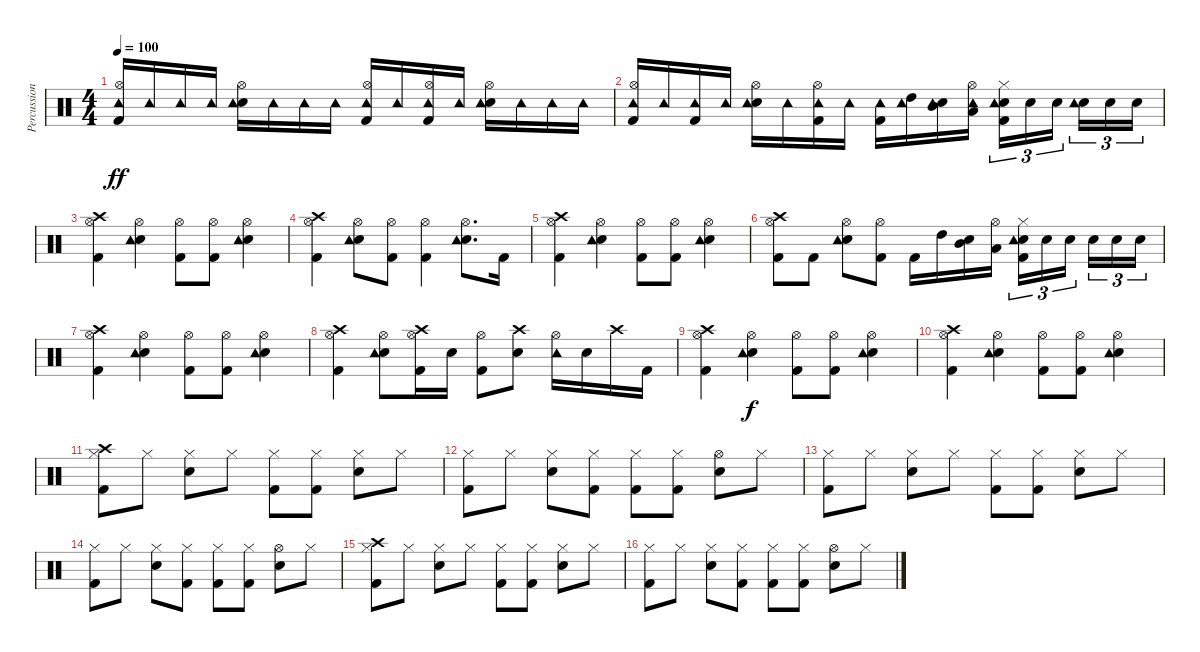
\track ("Percussions" "Percussion") {instrument percussion}
\staff {score}
\articulation defaults
\ts (4 4)
\tempo 100
\clef neutral
\ks c
("Kick (hit) 2" "Hi-Hat (open)" "Tambourine (hit)").16{dy ff} "Tambourine (hit)".16 "Tambourine (hit)".16 "Tambourine (hit)".16 ("Snare (hit) 2" "Hi-Hat (open)" "Tambourine (hit)").16 "Tambourine (hit)".16 "Tambourine (hit)".16 "Tambourine (hit)".16 ("Kick (hit) 2" "Hi-Hat (open)" "Tambourine (hit)").16 "Tambourine (hit)".16 ("Kick (hit) 2" "Hi-Hat (open)" "Tambourine (hit)").16 "Tambourine (hit)".16 ("Snare (hit) 2" "Hi-Hat (open)" "Tambourine (hit)").16 "Tambourine (hit)".16 "Tambourine (hit)".16 "Tambourine (hit)".16 |
("Kick (hit) 2" "Hi-Hat (open)" "Tambourine (hit)").16 "Tambourine (hit)".16 ("Kick (hit) 2" "Tambourine (hit)").16 "Tambourine (hit)".16 ("Snare (hit) 2" "Hi-Hat (open)" "Tambourine (hit)").16 "Tambourine (hit)".16 ("Kick (hit) 2" "Hi-Hat (open)" "Tambourine (hit)").16 "Tambourine (hit)".16 ("Kick (hit) 2" "Tambourine (hit)").16 ("High Tom (hit)" "Tambourine (hit)").16 ("Snare (hit) 2" "Mid Tom (hit)" "Tambourine (hit)").16 ("Low Tom (hit)" "Hi-Hat (open)" "Tambourine (hit)").16 ("Kick (hit) 2" "Snare (hit) 2" "Hi-Hat (closed)" "Tambourine (hit)").16{tu (3 2)} "Snare (hit) 2".16{tu (3 2)} "Snare (hit) 2".16{tu (3 2)} ("Snare (hit) 2" "Tambourine (hit)").16{tu (3 2)} "Snare (hit) 2".16{tu (3 2)} "Snare (hit) 2".16{tu (3 2)} |
("Kick (hit) 2" "Hi-Hat (open)" "Crash high (hit)").4 ("Snare (hit) 2" "Hi-Hat (open)" "Tambourine (hit)").4 ("Kick (hit) 2" "Hi-Hat (open)").8 ("Kick (hit) 2" "Hi-Hat (open)").8 ("Snare (hit) 2" "Hi-Hat (open)" "Tambourine (hit)").4 |
("Kick (hit) 2" "Hi-Hat (open)" "Crash high (hit)").4 ("Snare (hit) 2" "Hi-Hat (open)" "Tambourine (hit)").8 ("Kick (hit) 2" "Hi-Hat (open)").8 ("Kick (hit) 2" "Hi-Hat (open)").4 ("Snare (hit) 2" "Hi-Hat (open)" "Tambourine (hit)").8{d} "Kick (hit) 2".16 |
("Kick (hit) 2" "Hi-Hat (open)" "Crash high (hit)").4 ("Snare (hit) 2" "Hi-Hat (open)" "Tambourine (hit)").4 ("Kick (hit) 2" "Hi-Hat (open)").8 ("Kick (hit) 2" "Hi-Hat (open)").8 ("Snare (hit) 2" "Hi-Hat (open)" "Tambourine (hit)").4 |
("Kick (hit) 2" "Hi-Hat (open)" "Crash high (hit)").8 "Kick (hit) 2".8 ("Snare (hit) 2" "Hi-Hat (open)" "Tambourine (hit)").8 ("Kick (hit) 2" "Hi-Hat (open)").8 "Kick (hit) 2".16 "High Tom (hit)".16 ("Snare (hit) 2" "Mid Tom (hit)").16 ("Low Tom (hit)" "Hi-Hat (open)").16 ("Kick (hit) 2" "Snare (hit) 2" "Hi-Hat (closed)" "Tambourine (hit)").16{tu (3 2)} "Snare (hit) 2".16{tu (3 2)} "Snare (hit) 2".16{tu (3 2)} "Snare (hit) 2".16{tu (3 2)} "Snare (hit) 2".16{tu (3 2)} "Snare (hit) 2".16{tu (3 2)} |
("Kick (hit) 2" "Hi-Hat (open)" "Crash high (hit)").4 ("Snare (hit) 2" "Hi-Hat (open)" "Tambourine (hit)").4 ("Kick (hit) 2" "Hi-Hat (open)").8 ("Kick (hit) 2" "Hi-Hat (open)").8 ("Snare (hit) 2" "Hi-Hat (open)" "Tambourine (hit)").4 |
("Kick (hit) 2" "Hi-Hat (open)" "Crash high (hit)").4 ("Snare (hit) 2" "Hi-Hat (open)" "Tambourine (hit)").8 ("Kick (hit) 2" "Hi-Hat (open)" "Crash high (hit)").16 "Snare (hit) 2".16 ("Kick (hit) 2" "Hi-Hat (open)").8 ("Snare (hit) 2" "Crash high (hit)").8 ("Hi-Hat (open)" "Tambourine (hit)").16 "Snare (hit) 2".16 "Crash high (hit)".16 "Kick (hit) 2".16 |
("Kick (hit) 2" "Hi-Hat (open)" "Crash high (hit)").4 ("Snare (hit) 2" "Hi-Hat (open)" "Tambourine (hit)").4{dy f} ("Kick (hit) 2" "Hi-Hat (open)").8 ("Kick (hit) 2" "Hi-Hat (open)").8 ("Snare (hit) 2" "Hi-Hat (open)" "Tambourine (hit)").4 |
("Kick (hit) 2" "Hi-Hat (open)" "Crash high (hit)").4 ("Snare (hit) 2" "Hi-Hat (open)" "Tambourine (hit)").4 ("Kick (hit) 2" "Hi-Hat (open)").8 ("Kick (hit) 2" "Hi-Hat (open)").8 ("Snare (hit) 2" "Hi-Hat (open)" "Tambourine (hit)").4 |
("Kick (hit) 2" "Hi-Hat (closed)" "Crash high (hit)").8 "Hi-Hat (closed)".8 ("Snare (hit) 2" "Hi-Hat (closed)").8 "Hi-Hat (closed)".8 ("Kick (hit) 2" "Hi-Hat (closed)").8 ("Kick (hit) 2" "Hi-Hat (closed)").8 ("Snare (hit) 2" "Hi-Hat (closed)").8 "Hi-Hat (closed)".8 |
("Kick (hit) 2" "Hi-Hat (closed)").8 "Hi-Hat (closed)".8 ("Snare (hit) 2" "Hi-Hat (closed)").8 ("Kick (hit) 2" "Hi-Hat (closed)").8 ("Kick (hit) 2" "Hi-Hat (closed)").8 ("Kick (hit) 2" "Hi-Hat (closed)").8 ("Snare (hit) 2" "Hi-Hat (open)").8 "Hi-Hat (closed)".8 |
("Kick (hit) 2" "Hi-Hat (closed)").8 "Hi-Hat (closed)".8 ("Snare (hit) 2" "Hi-Hat (closed)").8 "Hi-Hat (closed)".8 ("Kick (hit) 2" "Hi-Hat (closed)").8 ("Kick (hit) 2" "Hi-Hat (closed)").8 ("Snare (hit) 2" "Hi-Hat (closed)").8 "Hi-Hat (closed)".8 |
("Kick (hit) 2" "Hi-Hat (closed)").8 "Hi-Hat (closed)".8 ("Snare (hit) 2" "Hi-Hat (closed)").8 ("Kick (hit) 2" "Hi-Hat (closed)").8 ("Kick (hit) 2" "Hi-Hat (closed)").8 ("Kick (hit) 2" "Hi-Hat (closed)").8 ("Snare (hit) 2" "Hi-Hat (open)").8 "Hi-Hat (closed)".8 |
("Kick (hit) 2" "Hi-Hat (closed)" "Crash high (hit)").8 "Hi-Hat (closed)".8 ("Snare (hit) 2" "Hi-Hat (closed)").8 "Hi-Hat (closed)".8 ("Kick (hit) 2" "Hi-Hat (closed)").8 ("Kick (hit) 2" "Hi-Hat (closed)").8 ("Snare (hit) 2" "Hi-Hat (closed)").8 "Hi-Hat (closed)".8 |
("Kick (hit) 2" "Hi-Hat (closed)").8 "Hi-Hat (closed)".8 ("Snare (hit) 2" "Hi-Hat (closed)").8 ("Kick (hit) 2" "Hi-Hat (closed)").8 ("Kick (hit) 2" "Hi-Hat (closed)").8 ("Kick (hit) 2" "Hi-Hat (closed)").8 ("Snare (hit) 2" "Hi-Hat (open)").8 "Hi-Hat (closed)".8
